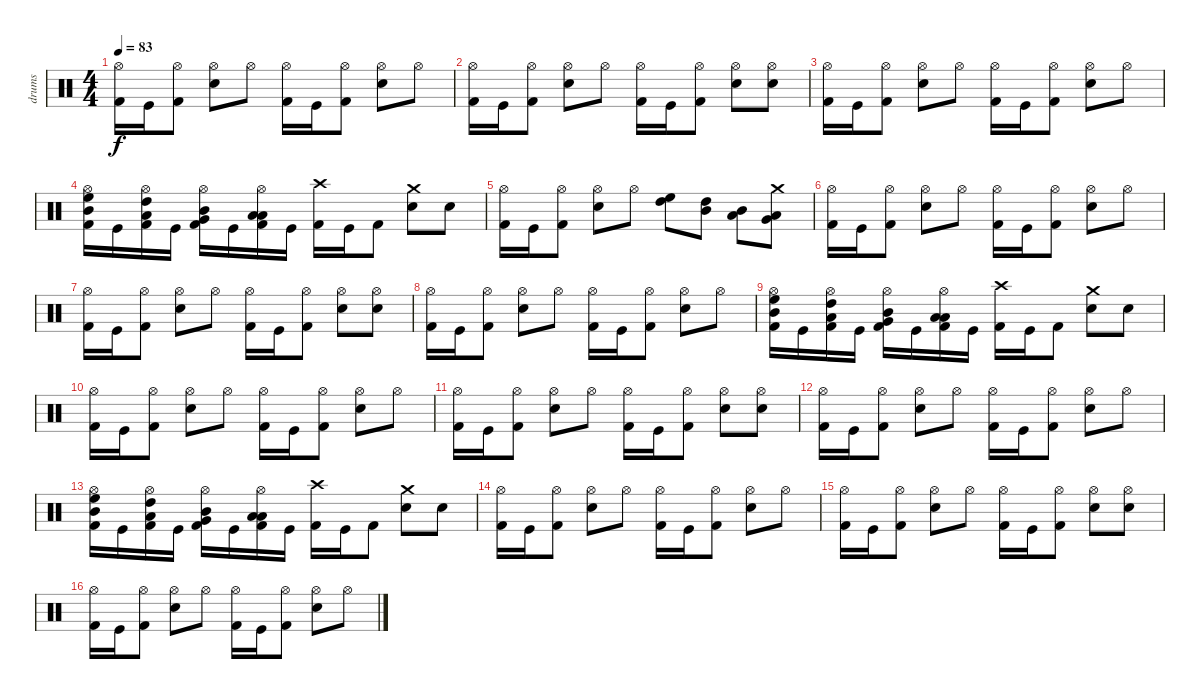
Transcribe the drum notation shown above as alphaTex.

\track ("drums" "drums") {instrument percussion}
\staff {score}
\articulation defaults
\ts (4 4)
\tempo 83
\clef neutral
\ks c
("Hi-Hat (open)" "Kick (hit) 2").16{dy f} "Kick (hit)".16 ("Kick (hit) 2" "Hi-Hat (open)").8 ("Electric Snare (hit)" "Hi-Hat (open)").8 "Hi-Hat (open)".8 ("Kick (hit) 2" "Hi-Hat (open)").16 "Kick (hit)".16 ("Kick (hit) 2" "Hi-Hat (open)").8 ("Electric Snare (hit)" "Hi-Hat (open)").8 "Hi-Hat (open)".8 |
("Kick (hit) 2" "Hi-Hat (open)").16 "Kick (hit)".16 ("Kick (hit) 2" "Hi-Hat (open)").8 ("Electric Snare (hit)" "Hi-Hat (open)").8 "Hi-Hat (open)".8 ("Kick (hit) 2" "Hi-Hat (open)").16 "Kick (hit)".16 ("Kick (hit) 2" "Hi-Hat (open)").8 ("Electric Snare (hit)" "Hi-Hat (open)").8 ("Snare (hit) 2" "Hi-Hat (open)").8 |
("Hi-Hat (open)" "Kick (hit) 2").16 "Kick (hit)".16 ("Kick (hit) 2" "Hi-Hat (open)").8 ("Electric Snare (hit)" "Hi-Hat (open)").8 "Hi-Hat (open)".8 ("Kick (hit) 2" "Hi-Hat (open)").16 "Kick (hit)".16 ("Kick (hit) 2" "Hi-Hat (open)").8 ("Electric Snare (hit)" "Hi-Hat (open)").8 "Hi-Hat (open)".8 |
("Kick (hit) 2" "Mid Tom (hit)" "High Floor Tom (hit)" "Hi-Hat (open)").16 "Kick (hit)".16 ("Kick (hit) 2" "Low Tom (hit)" "High Tom (hit)" "Hi-Hat (open)").16 "Kick (hit)".16 ("Kick (hit) 2" "Very Low Tom (hit)" "Mid Tom (hit)" "Hi-Hat (open)").16 "Kick (hit)".16 ("Kick (hit) 2" "Low Floor Tom (hit)" "Low Tom (hit)" "Hi-Hat (open)").16 "Kick (hit)".16 ("Kick (hit) 2" "Crash high (hit)").16 "Kick (hit)".16 "Kick (hit) 2".8 ("Electric Snare (hit)" "Crash medium (hit)").8 "Snare (hit) 2".8 |
("Kick (hit) 2" "Hi-Hat (open)").16 "Kick (hit)".16 ("Kick (hit) 2" "Hi-Hat (open)").8 ("Electric Snare (hit)" "Hi-Hat (open)").8 "Hi-Hat (open)".8 ("High Tom (hit)" "High Floor Tom (hit)").8 ("Mid Tom (hit)" "High Tom (hit)").8 ("Low Tom (hit)" "Mid Tom (hit)").8 ("Very Low Tom (hit)" "Low Tom (hit)" "Crash medium (hit)").8 |
("Hi-Hat (open)" "Kick (hit) 2").16 "Kick (hit)".16 ("Kick (hit) 2" "Hi-Hat (open)").8 ("Electric Snare (hit)" "Hi-Hat (open)").8 "Hi-Hat (open)".8 ("Kick (hit) 2" "Hi-Hat (open)").16 "Kick (hit)".16 ("Kick (hit) 2" "Hi-Hat (open)").8 ("Electric Snare (hit)" "Hi-Hat (open)").8 "Hi-Hat (open)".8 |
("Kick (hit) 2" "Hi-Hat (open)").16 "Kick (hit)".16 ("Kick (hit) 2" "Hi-Hat (open)").8 ("Electric Snare (hit)" "Hi-Hat (open)").8 "Hi-Hat (open)".8 ("Kick (hit) 2" "Hi-Hat (open)").16 "Kick (hit)".16 ("Kick (hit) 2" "Hi-Hat (open)").8 ("Electric Snare (hit)" "Hi-Hat (open)").8 ("Snare (hit) 2" "Hi-Hat (open)").8 |
("Hi-Hat (open)" "Kick (hit) 2").16 "Kick (hit)".16 ("Kick (hit) 2" "Hi-Hat (open)").8 ("Electric Snare (hit)" "Hi-Hat (open)").8 "Hi-Hat (open)".8 ("Kick (hit) 2" "Hi-Hat (open)").16 "Kick (hit)".16 ("Kick (hit) 2" "Hi-Hat (open)").8 ("Electric Snare (hit)" "Hi-Hat (open)").8 "Hi-Hat (open)".8 |
("Kick (hit) 2" "Mid Tom (hit)" "High Floor Tom (hit)" "Hi-Hat (open)").16 "Kick (hit)".16 ("Kick (hit) 2" "Low Tom (hit)" "High Tom (hit)" "Hi-Hat (open)").16 "Kick (hit)".16 ("Kick (hit) 2" "Very Low Tom (hit)" "Mid Tom (hit)" "Hi-Hat (open)").16 "Kick (hit)".16 ("Kick (hit) 2" "Low Floor Tom (hit)" "Low Tom (hit)" "Hi-Hat (open)").16 "Kick (hit)".16 ("Kick (hit) 2" "Crash high (hit)").16 "Kick (hit)".16 "Kick (hit) 2".8 ("Electric Snare (hit)" "Crash medium (hit)").8 "Snare (hit) 2".8 |
("Hi-Hat (open)" "Kick (hit) 2").16 "Kick (hit)".16 ("Kick (hit) 2" "Hi-Hat (open)").8 ("Electric Snare (hit)" "Hi-Hat (open)").8 "Hi-Hat (open)".8 ("Kick (hit) 2" "Hi-Hat (open)").16 "Kick (hit)".16 ("Kick (hit) 2" "Hi-Hat (open)").8 ("Electric Snare (hit)" "Hi-Hat (open)").8 "Hi-Hat (open)".8 |
("Kick (hit) 2" "Hi-Hat (open)").16 "Kick (hit)".16 ("Kick (hit) 2" "Hi-Hat (open)").8 ("Electric Snare (hit)" "Hi-Hat (open)").8 "Hi-Hat (open)".8 ("Kick (hit) 2" "Hi-Hat (open)").16 "Kick (hit)".16 ("Kick (hit) 2" "Hi-Hat (open)").8 ("Electric Snare (hit)" "Hi-Hat (open)").8 ("Snare (hit) 2" "Hi-Hat (open)").8 |
("Hi-Hat (open)" "Kick (hit) 2").16 "Kick (hit)".16 ("Kick (hit) 2" "Hi-Hat (open)").8 ("Electric Snare (hit)" "Hi-Hat (open)").8 "Hi-Hat (open)".8 ("Kick (hit) 2" "Hi-Hat (open)").16 "Kick (hit)".16 ("Kick (hit) 2" "Hi-Hat (open)").8 ("Electric Snare (hit)" "Hi-Hat (open)").8 "Hi-Hat (open)".8 |
("Kick (hit) 2" "Mid Tom (hit)" "High Floor Tom (hit)" "Hi-Hat (open)").16 "Kick (hit)".16 ("Kick (hit) 2" "Low Tom (hit)" "High Tom (hit)" "Hi-Hat (open)").16 "Kick (hit)".16 ("Kick (hit) 2" "Very Low Tom (hit)" "Mid Tom (hit)" "Hi-Hat (open)").16 "Kick (hit)".16 ("Kick (hit) 2" "Low Floor Tom (hit)" "Low Tom (hit)" "Hi-Hat (open)").16 "Kick (hit)".16 ("Kick (hit) 2" "Crash high (hit)").16 "Kick (hit)".16 "Kick (hit) 2".8 ("Electric Snare (hit)" "Crash medium (hit)").8 "Snare (hit) 2".8 |
("Hi-Hat (open)" "Kick (hit) 2").16 "Kick (hit)".16 ("Kick (hit) 2" "Hi-Hat (open)").8 ("Electric Snare (hit)" "Hi-Hat (open)").8 "Hi-Hat (open)".8 ("Kick (hit) 2" "Hi-Hat (open)").16 "Kick (hit)".16 ("Kick (hit) 2" "Hi-Hat (open)").8 ("Electric Snare (hit)" "Hi-Hat (open)").8 "Hi-Hat (open)".8 |
("Kick (hit) 2" "Hi-Hat (open)").16 "Kick (hit)".16 ("Kick (hit) 2" "Hi-Hat (open)").8 ("Electric Snare (hit)" "Hi-Hat (open)").8 "Hi-Hat (open)".8 ("Kick (hit) 2" "Hi-Hat (open)").16 "Kick (hit)".16 ("Kick (hit) 2" "Hi-Hat (open)").8 ("Electric Snare (hit)" "Hi-Hat (open)").8 ("Snare (hit) 2" "Hi-Hat (open)").8 |
("Hi-Hat (open)" "Kick (hit) 2").16 "Kick (hit)".16 ("Kick (hit) 2" "Hi-Hat (open)").8 ("Electric Snare (hit)" "Hi-Hat (open)").8 "Hi-Hat (open)".8 ("Kick (hit) 2" "Hi-Hat (open)").16 "Kick (hit)".16 ("Kick (hit) 2" "Hi-Hat (open)").8 ("Electric Snare (hit)" "Hi-Hat (open)").8 "Hi-Hat (open)".8
